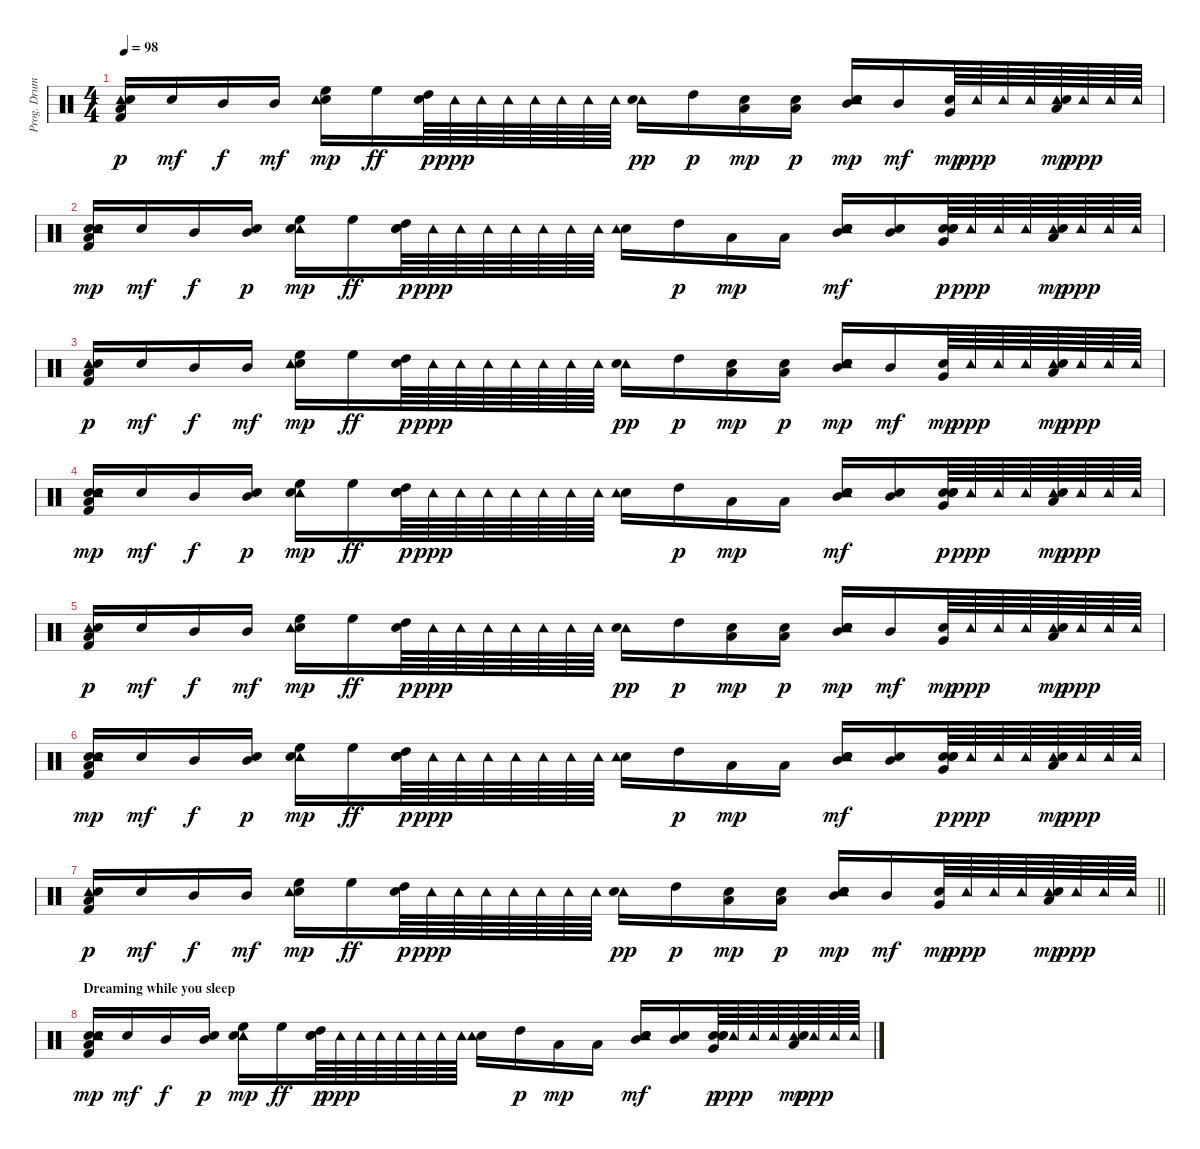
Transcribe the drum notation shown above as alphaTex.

\track ("Prog. Drums" "Prog. Drum") {instrument percussion}
\staff {score}
\articulation defaults
\ts (4 4)
\tempo 98
\clef neutral
\ks c
("Tambourine (hit)" "Snare (hit)" "Low Floor Tom (hit)" "Kick (hit) 2").16{dy p} "Snare (hit)".16{dy mf} "Mid Tom (hit)".16{dy f} "Mid Tom (hit)".16{dy mf} ("Snare (hit) 2" "High Floor Tom (hit)" "Tambourine (hit)").16{dy mp} "High Floor Tom (hit)".16{dy ff} ("High Tom (hit)" "Snare (hit)").64{dy p} "Tambourine (hit)".64{dy ppp} "Tambourine (hit)".64 "Tambourine (hit)".64 "Tambourine (hit)".64 "Tambourine (hit)".64 "Tambourine (hit)".64 "Tambourine (hit)".64 ("Tambourine (hit)" "Snare (hit) 2").16{dy pp} "High Tom (hit)".16{dy p} ("Snare (hit)" "Low Tom (hit)").16{dy mp} ("Low Tom (hit)" "Snare (hit)").16{dy p} ("Snare (hit) 2" "Mid Tom (hit)" "Snare (hit)" "Tambourine (hit)").16{dy mp} "Mid Tom (hit)".16{dy mf} ("Snare (hit)" "Very Low Tom (hit)").64{dy mp} "Tambourine (hit)".64{dy ppp} "Tambourine (hit)".64 "Tambourine (hit)".64 ("Tambourine (hit)" "Snare (hit) 2" "Low Tom (hit)").64{dy mp} "Tambourine (hit)".64{dy ppp} "Tambourine (hit)".64 "Tambourine (hit)".64 |
("Snare (hit)" "Snare (hit)" "Tambourine (hit)" "Kick (hit) 2" "Low Floor Tom (hit)").16{dy mp} "Snare (hit)".16{dy mf} "Mid Tom (hit)".16{dy f} ("Mid Tom (hit)" "Snare (hit)").16{dy p} ("Tambourine (hit)" "High Floor Tom (hit)" "Snare (hit) 2").16{dy mp} "High Floor Tom (hit)".16{dy ff} ("High Tom (hit)" "Snare (hit)" "Snare (hit)").64{dy p} "Tambourine (hit)".64{dy ppp} "Tambourine (hit)".64 "Tambourine (hit)".64 "Tambourine (hit)".64 "Tambourine (hit)".64 "Tambourine (hit)".64 "Tambourine (hit)".64 ("Snare (hit) 2" "Tambourine (hit)").16 "High Tom (hit)".16{dy p} "Low Tom (hit)".16{dy mp} "Low Tom (hit)".16 ("Tambourine (hit)" "Snare (hit)" "Snare (hit) 2" "Mid Tom (hit)").16{dy mf} ("Snare (hit) 2" "Mid Tom (hit)").16 ("Snare (hit) 2" "Very Low Tom (hit)" "Snare (hit)" "Snare (hit)").64{dy p} "Tambourine (hit)".64{dy ppp} "Tambourine (hit)".64 "Tambourine (hit)".64 ("Tambourine (hit)" "Snare (hit) 2" "Low Tom (hit)").64{dy mp} "Tambourine (hit)".64{dy ppp} "Tambourine (hit)".64 "Tambourine (hit)".64 |
("Tambourine (hit)" "Snare (hit)" "Low Floor Tom (hit)" "Kick (hit) 2").16{dy p} "Snare (hit)".16{dy mf} "Mid Tom (hit)".16{dy f} "Mid Tom (hit)".16{dy mf} ("Snare (hit) 2" "High Floor Tom (hit)" "Tambourine (hit)").16{dy mp} "High Floor Tom (hit)".16{dy ff} ("High Tom (hit)" "Snare (hit)").64{dy p} "Tambourine (hit)".64{dy ppp} "Tambourine (hit)".64 "Tambourine (hit)".64 "Tambourine (hit)".64 "Tambourine (hit)".64 "Tambourine (hit)".64 "Tambourine (hit)".64 ("Tambourine (hit)" "Snare (hit) 2").16{dy pp} "High Tom (hit)".16{dy p} ("Snare (hit)" "Low Tom (hit)").16{dy mp} ("Low Tom (hit)" "Snare (hit)").16{dy p} ("Snare (hit) 2" "Mid Tom (hit)" "Snare (hit)" "Tambourine (hit)").16{dy mp} "Mid Tom (hit)".16{dy mf} ("Snare (hit)" "Very Low Tom (hit)").64{dy mp} "Tambourine (hit)".64{dy ppp} "Tambourine (hit)".64 "Tambourine (hit)".64 ("Tambourine (hit)" "Snare (hit) 2" "Low Tom (hit)").64{dy mp} "Tambourine (hit)".64{dy ppp} "Tambourine (hit)".64 "Tambourine (hit)".64 |
("Snare (hit)" "Snare (hit)" "Tambourine (hit)" "Kick (hit) 2" "Low Floor Tom (hit)").16{dy mp} "Snare (hit)".16{dy mf} "Mid Tom (hit)".16{dy f} ("Mid Tom (hit)" "Snare (hit)").16{dy p} ("Tambourine (hit)" "High Floor Tom (hit)" "Snare (hit) 2").16{dy mp} "High Floor Tom (hit)".16{dy ff} ("High Tom (hit)" "Snare (hit)" "Snare (hit)").64{dy p} "Tambourine (hit)".64{dy ppp} "Tambourine (hit)".64 "Tambourine (hit)".64 "Tambourine (hit)".64 "Tambourine (hit)".64 "Tambourine (hit)".64 "Tambourine (hit)".64 ("Snare (hit) 2" "Tambourine (hit)").16 "High Tom (hit)".16{dy p} "Low Tom (hit)".16{dy mp} "Low Tom (hit)".16 ("Tambourine (hit)" "Snare (hit)" "Snare (hit) 2" "Mid Tom (hit)").16{dy mf} ("Snare (hit) 2" "Mid Tom (hit)").16 ("Snare (hit) 2" "Very Low Tom (hit)" "Snare (hit)" "Snare (hit)").64{dy p} "Tambourine (hit)".64{dy ppp} "Tambourine (hit)".64 "Tambourine (hit)".64 ("Tambourine (hit)" "Snare (hit) 2" "Low Tom (hit)").64{dy mp} "Tambourine (hit)".64{dy ppp} "Tambourine (hit)".64 "Tambourine (hit)".64 |
("Tambourine (hit)" "Snare (hit)" "Low Floor Tom (hit)" "Kick (hit) 2").16{dy p} "Snare (hit)".16{dy mf} "Mid Tom (hit)".16{dy f} "Mid Tom (hit)".16{dy mf} ("Snare (hit) 2" "High Floor Tom (hit)" "Tambourine (hit)").16{dy mp} "High Floor Tom (hit)".16{dy ff} ("High Tom (hit)" "Snare (hit)").64{dy p} "Tambourine (hit)".64{dy ppp} "Tambourine (hit)".64 "Tambourine (hit)".64 "Tambourine (hit)".64 "Tambourine (hit)".64 "Tambourine (hit)".64 "Tambourine (hit)".64 ("Tambourine (hit)" "Snare (hit) 2").16{dy pp} "High Tom (hit)".16{dy p} ("Snare (hit)" "Low Tom (hit)").16{dy mp} ("Low Tom (hit)" "Snare (hit)").16{dy p} ("Snare (hit) 2" "Mid Tom (hit)" "Snare (hit)" "Tambourine (hit)").16{dy mp} "Mid Tom (hit)".16{dy mf} ("Snare (hit)" "Very Low Tom (hit)").64{dy mp} "Tambourine (hit)".64{dy ppp} "Tambourine (hit)".64 "Tambourine (hit)".64 ("Tambourine (hit)" "Snare (hit) 2" "Low Tom (hit)").64{dy mp} "Tambourine (hit)".64{dy ppp} "Tambourine (hit)".64 "Tambourine (hit)".64 |
("Snare (hit)" "Snare (hit)" "Tambourine (hit)" "Kick (hit) 2" "Low Floor Tom (hit)").16{dy mp} "Snare (hit)".16{dy mf} "Mid Tom (hit)".16{dy f} ("Mid Tom (hit)" "Snare (hit)").16{dy p} ("Tambourine (hit)" "High Floor Tom (hit)" "Snare (hit) 2").16{dy mp} "High Floor Tom (hit)".16{dy ff} ("High Tom (hit)" "Snare (hit)" "Snare (hit)").64{dy p} "Tambourine (hit)".64{dy ppp} "Tambourine (hit)".64 "Tambourine (hit)".64 "Tambourine (hit)".64 "Tambourine (hit)".64 "Tambourine (hit)".64 "Tambourine (hit)".64 ("Snare (hit) 2" "Tambourine (hit)").16 "High Tom (hit)".16{dy p} "Low Tom (hit)".16{dy mp} "Low Tom (hit)".16 ("Tambourine (hit)" "Snare (hit)" "Snare (hit) 2" "Mid Tom (hit)").16{dy mf} ("Snare (hit) 2" "Mid Tom (hit)").16 ("Snare (hit) 2" "Very Low Tom (hit)" "Snare (hit)" "Snare (hit)").64{dy p} "Tambourine (hit)".64{dy ppp} "Tambourine (hit)".64 "Tambourine (hit)".64 ("Tambourine (hit)" "Snare (hit) 2" "Low Tom (hit)").64{dy mp} "Tambourine (hit)".64{dy ppp} "Tambourine (hit)".64 "Tambourine (hit)".64 |
\barLineRight lightlight
("Tambourine (hit)" "Snare (hit)" "Low Floor Tom (hit)" "Kick (hit) 2").16{dy p} "Snare (hit)".16{dy mf} "Mid Tom (hit)".16{dy f} "Mid Tom (hit)".16{dy mf} ("Snare (hit) 2" "High Floor Tom (hit)" "Tambourine (hit)").16{dy mp} "High Floor Tom (hit)".16{dy ff} ("High Tom (hit)" "Snare (hit)").64{dy p} "Tambourine (hit)".64{dy ppp} "Tambourine (hit)".64 "Tambourine (hit)".64 "Tambourine (hit)".64 "Tambourine (hit)".64 "Tambourine (hit)".64 "Tambourine (hit)".64 ("Tambourine (hit)" "Snare (hit) 2").16{dy pp} "High Tom (hit)".16{dy p} ("Snare (hit)" "Low Tom (hit)").16{dy mp} ("Low Tom (hit)" "Snare (hit)").16{dy p} ("Snare (hit) 2" "Mid Tom (hit)" "Snare (hit)" "Tambourine (hit)").16{dy mp} "Mid Tom (hit)".16{dy mf} ("Snare (hit)" "Very Low Tom (hit)").64{dy mp} "Tambourine (hit)".64{dy ppp} "Tambourine (hit)".64 "Tambourine (hit)".64 ("Tambourine (hit)" "Snare (hit) 2" "Low Tom (hit)").64{dy mp} "Tambourine (hit)".64{dy ppp} "Tambourine (hit)".64 "Tambourine (hit)".64 |
\section ("" "Dreaming while you sleep")
("Snare (hit)" "Snare (hit)" "Tambourine (hit)" "Kick (hit) 2" "Low Floor Tom (hit)").16{dy mp} "Snare (hit)".16{dy mf} "Mid Tom (hit)".16{dy f} ("Mid Tom (hit)" "Snare (hit)").16{dy p} ("Tambourine (hit)" "High Floor Tom (hit)" "Snare (hit) 2").16{dy mp} "High Floor Tom (hit)".16{dy ff} ("High Tom (hit)" "Snare (hit)" "Snare (hit)").64{dy p} "Tambourine (hit)".64{dy ppp} "Tambourine (hit)".64 "Tambourine (hit)".64 "Tambourine (hit)".64 "Tambourine (hit)".64 "Tambourine (hit)".64 "Tambourine (hit)".64 ("Snare (hit) 2" "Tambourine (hit)").16 "High Tom (hit)".16{dy p} "Low Tom (hit)".16{dy mp} "Low Tom (hit)".16 ("Tambourine (hit)" "Snare (hit)" "Snare (hit) 2" "Mid Tom (hit)").16{dy mf} ("Snare (hit) 2" "Mid Tom (hit)").16 ("Snare (hit) 2" "Very Low Tom (hit)" "Snare (hit)" "Snare (hit)").64{dy p} "Tambourine (hit)".64{dy ppp} "Tambourine (hit)".64 "Tambourine (hit)".64 ("Tambourine (hit)" "Snare (hit) 2" "Low Tom (hit)").64{dy mp} "Tambourine (hit)".64{dy ppp} "Tambourine (hit)".64 "Tambourine (hit)".64
